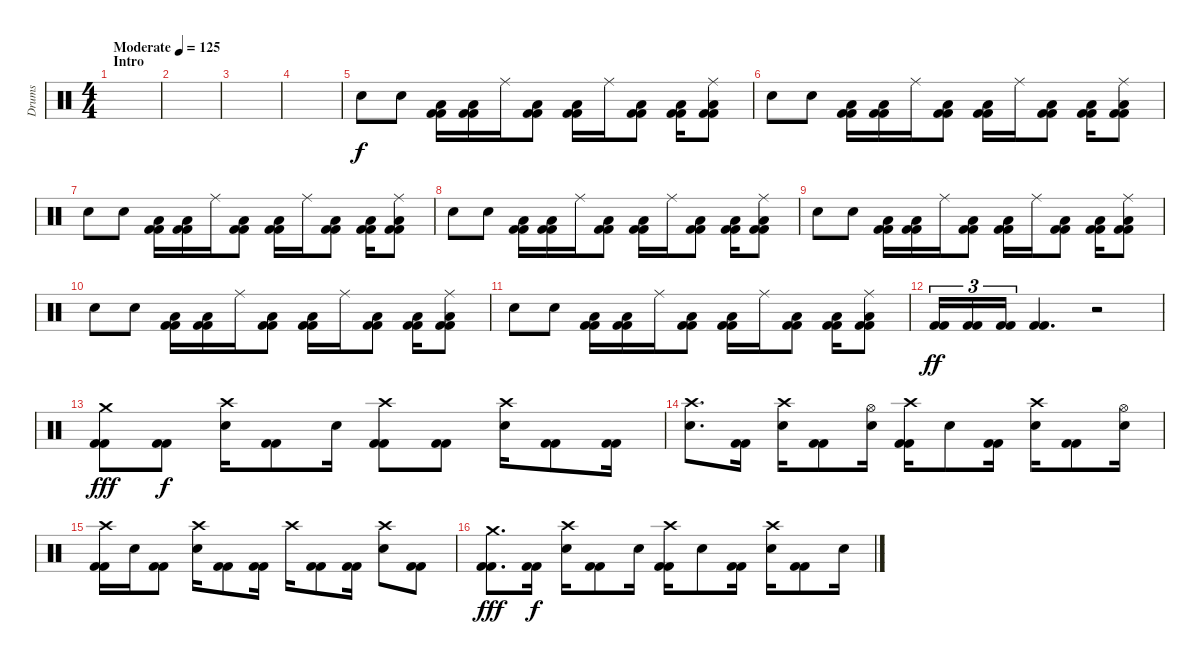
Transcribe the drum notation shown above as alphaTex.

\track ("Drums" "Drums") {instrument percussion}
\staff {score}
\articulation defaults
\ts (4 4)
\section ("" "Intro")
\tempo (125 "Moderate")
\clef neutral
\ks c
|
|
|
|
"Electric Snare (hit)".8 "Electric Snare (hit)".8 ("Low Floor Tom (hit)" "Kick (hit) 2" "Kick (hit) 2").16 ("Low Floor Tom (hit)" "Kick (hit) 2" "Kick (hit) 2").16 "Ride (middle)".16 ("Low Floor Tom (hit)" "Kick (hit) 2" "Kick (hit) 2").8 ("Low Floor Tom (hit)" "Kick (hit) 2" "Kick (hit) 2").16 "Ride (middle)".16 ("Low Floor Tom (hit)" "Kick (hit) 2" "Kick (hit) 2").8 ("Low Floor Tom (hit)" "Kick (hit) 2" "Kick (hit) 2").16 ("Ride (middle)" "Low Floor Tom (hit)" "Kick (hit) 2" "Kick (hit) 2").8 |
"Electric Snare (hit)".8 "Electric Snare (hit)".8 ("Low Floor Tom (hit)" "Kick (hit) 2" "Kick (hit) 2").16 ("Low Floor Tom (hit)" "Kick (hit) 2" "Kick (hit) 2").16 "Ride (middle)".16 ("Low Floor Tom (hit)" "Kick (hit) 2" "Kick (hit) 2").8 ("Low Floor Tom (hit)" "Kick (hit) 2" "Kick (hit) 2").16 "Ride (middle)".16 ("Low Floor Tom (hit)" "Kick (hit) 2" "Kick (hit) 2").8 ("Low Floor Tom (hit)" "Kick (hit) 2" "Kick (hit) 2").16 ("Ride (middle)" "Low Floor Tom (hit)" "Kick (hit) 2" "Kick (hit) 2").8 |
"Electric Snare (hit)".8 "Electric Snare (hit)".8 ("Low Floor Tom (hit)" "Kick (hit) 2" "Kick (hit) 2").16 ("Low Floor Tom (hit)" "Kick (hit) 2" "Kick (hit) 2").16 "Ride (middle)".16 ("Low Floor Tom (hit)" "Kick (hit) 2" "Kick (hit) 2").8 ("Low Floor Tom (hit)" "Kick (hit) 2" "Kick (hit) 2").16 "Ride (middle)".16 ("Low Floor Tom (hit)" "Kick (hit) 2" "Kick (hit) 2").8 ("Low Floor Tom (hit)" "Kick (hit) 2" "Kick (hit) 2").16 ("Ride (middle)" "Low Floor Tom (hit)" "Kick (hit) 2" "Kick (hit) 2").8 |
"Electric Snare (hit)".8 "Electric Snare (hit)".8 ("Low Floor Tom (hit)" "Kick (hit) 2" "Kick (hit) 2").16 ("Low Floor Tom (hit)" "Kick (hit) 2" "Kick (hit) 2").16 "Ride (middle)".16 ("Low Floor Tom (hit)" "Kick (hit) 2" "Kick (hit) 2").8 ("Low Floor Tom (hit)" "Kick (hit) 2" "Kick (hit) 2").16 "Ride (middle)".16 ("Low Floor Tom (hit)" "Kick (hit) 2" "Kick (hit) 2").8 ("Low Floor Tom (hit)" "Kick (hit) 2" "Kick (hit) 2").16 ("Ride (middle)" "Low Floor Tom (hit)" "Kick (hit) 2" "Kick (hit) 2").8 |
"Electric Snare (hit)".8 "Electric Snare (hit)".8 ("Low Floor Tom (hit)" "Kick (hit) 2" "Kick (hit) 2").16 ("Low Floor Tom (hit)" "Kick (hit) 2" "Kick (hit) 2").16 "Ride (middle)".16 ("Low Floor Tom (hit)" "Kick (hit) 2" "Kick (hit) 2").8 ("Low Floor Tom (hit)" "Kick (hit) 2" "Kick (hit) 2").16 "Ride (middle)".16 ("Low Floor Tom (hit)" "Kick (hit) 2" "Kick (hit) 2").8 ("Low Floor Tom (hit)" "Kick (hit) 2" "Kick (hit) 2").16 ("Ride (middle)" "Low Floor Tom (hit)" "Kick (hit) 2" "Kick (hit) 2").8 |
"Electric Snare (hit)".8 "Electric Snare (hit)".8 ("Low Floor Tom (hit)" "Kick (hit) 2" "Kick (hit) 2").16 ("Low Floor Tom (hit)" "Kick (hit) 2" "Kick (hit) 2").16 "Ride (middle)".16 ("Low Floor Tom (hit)" "Kick (hit) 2" "Kick (hit) 2").8 ("Low Floor Tom (hit)" "Kick (hit) 2" "Kick (hit) 2").16 "Ride (middle)".16 ("Low Floor Tom (hit)" "Kick (hit) 2" "Kick (hit) 2").8 ("Low Floor Tom (hit)" "Kick (hit) 2" "Kick (hit) 2").16 ("Ride (middle)" "Low Floor Tom (hit)" "Kick (hit) 2" "Kick (hit) 2").8 |
"Electric Snare (hit)".8 "Electric Snare (hit)".8 ("Low Floor Tom (hit)" "Kick (hit) 2" "Kick (hit) 2").16 ("Low Floor Tom (hit)" "Kick (hit) 2" "Kick (hit) 2").16 "Ride (middle)".16 ("Low Floor Tom (hit)" "Kick (hit) 2" "Kick (hit) 2").8 ("Low Floor Tom (hit)" "Kick (hit) 2" "Kick (hit) 2").16 "Ride (middle)".16 ("Low Floor Tom (hit)" "Kick (hit) 2" "Kick (hit) 2").8 ("Low Floor Tom (hit)" "Kick (hit) 2" "Kick (hit) 2").16 ("Ride (middle)" "Low Floor Tom (hit)" "Kick (hit) 2" "Kick (hit) 2").8 |
("Kick (hit) 2" "Kick (hit) 2").16{tu (3 2) dy ff} ("Kick (hit) 2" "Kick (hit) 2").16{tu (3 2)} ("Kick (hit) 2" "Kick (hit) 2").16{tu (3 2)} ("Kick (hit) 2" "Kick (hit) 2").4{d} r.2 |
("Crash medium (hit)" "Kick (hit) 2" "Kick (hit) 2").8{dy fff} ("Kick (hit) 2" "Kick (hit) 2").8{dy f} ("Crash high (hit)" "Electric Snare (hit)").16 ("Kick (hit) 2" "Kick (hit) 2").8 "Electric Snare (hit)".16 ("Crash high (hit)" "Kick (hit) 2" "Kick (hit) 2").8 ("Kick (hit) 2" "Kick (hit) 2").8 ("Crash high (hit)" "Electric Snare (hit)").16 ("Kick (hit) 2" "Kick (hit) 2").8 ("Kick (hit) 2" "Kick (hit) 2").16 |
("Crash high (hit)" "Electric Snare (hit)").8{d} ("Kick (hit) 2" "Kick (hit) 2").16 ("Crash high (hit)" "Electric Snare (hit)").16 ("Kick (hit) 2" "Kick (hit) 2").8 ("Hi-Hat (open)" "Electric Snare (hit)").16 ("Crash high (hit)" "Kick (hit) 2" "Kick (hit) 2").16 "Electric Snare (hit)".8 ("Kick (hit) 2" "Kick (hit) 2").16 ("Crash high (hit)" "Electric Snare (hit)").16 ("Kick (hit) 2" "Kick (hit) 2").8 ("Hi-Hat (open)" "Electric Snare (hit)").16 |
("Crash high (hit)" "Kick (hit) 2" "Kick (hit) 2").16 "Electric Snare (hit)".16 ("Kick (hit) 2" "Kick (hit) 2").8 ("Crash high (hit)" "Electric Snare (hit)").16 ("Kick (hit) 2" "Kick (hit) 2").8 ("Kick (hit) 2" "Kick (hit) 2").16 "Crash high (hit)".16 ("Kick (hit) 2" "Kick (hit) 2").8 ("Kick (hit) 2" "Kick (hit) 2").16 ("Crash high (hit)" "Electric Snare (hit)").8 ("Kick (hit) 2" "Kick (hit) 2").8 |
("Crash medium (hit)" "Kick (hit) 2" "Kick (hit) 2").8{d dy fff} ("Kick (hit) 2" "Kick (hit) 2").16{dy f} ("Crash high (hit)" "Electric Snare (hit)").16 ("Kick (hit) 2" "Kick (hit) 2").8 "Electric Snare (hit)".16 ("Crash high (hit)" "Kick (hit) 2" "Kick (hit) 2").16 "Electric Snare (hit)".8 ("Kick (hit) 2" "Kick (hit) 2").16 ("Crash high (hit)" "Electric Snare (hit)").16 ("Kick (hit) 2" "Kick (hit) 2").8 "Electric Snare (hit)".16
